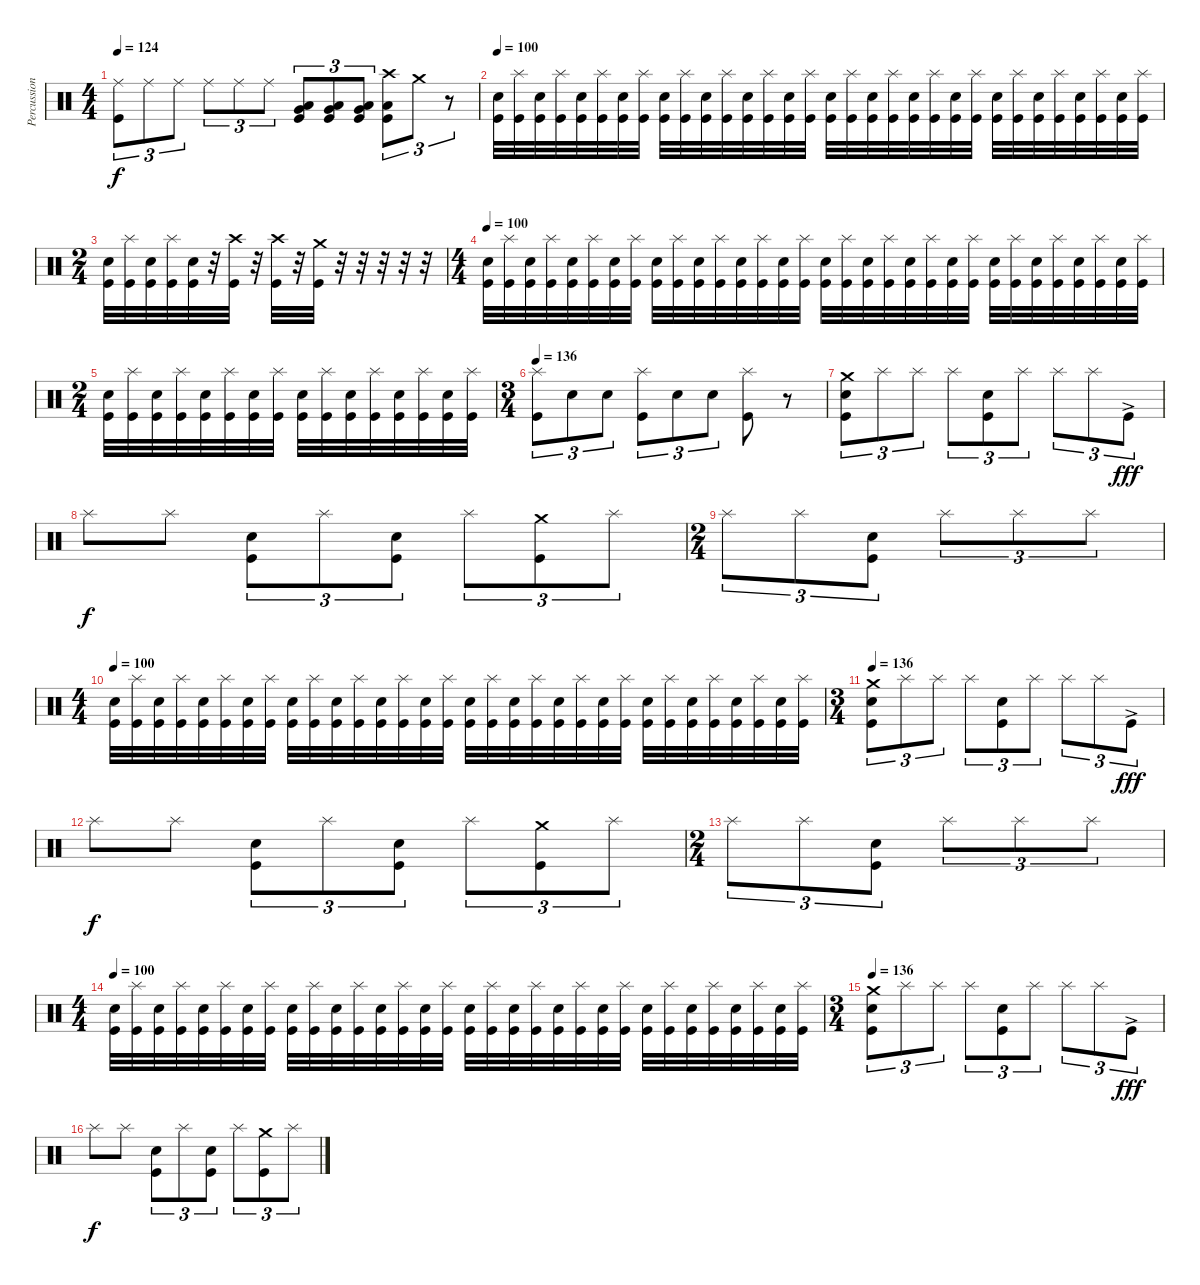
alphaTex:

\track ("Percussion" "Percussion") {instrument percussion}
\staff {score}
\articulation defaults
\ts (4 4)
\tempo 124
\clef neutral
\ks c
("Ride (middle)" "Kick (hit)").8{tu (3 2) dy f} "Ride (middle)".8{tu (3 2)} "Ride (middle)".8{tu (3 2)} "Ride (middle)".8{tu (3 2)} "Ride (middle)".8{tu (3 2)} "Ride (middle)".8{tu (3 2)} ("Very Low Tom (hit)" "Low Floor Tom (hit)" "Kick (hit)").8{tu (3 2)} ("Very Low Tom (hit)" "Low Floor Tom (hit)" "Kick (hit)").8{tu (3 2)} ("Very Low Tom (hit)" "Low Floor Tom (hit)" "Kick (hit)").8{tu (3 2)} ("Crash high (hit)" "Low Floor Tom (hit)" "Kick (hit)").8{tu (3 2)} "Crash medium (hit)".8{tu (3 2)} r.8{tu (3 2)} |
\tempo 100
("Electric Snare (hit)" "Kick (hit)").32 ("Splash (hit)" "Kick (hit)").32 ("Electric Snare (hit)" "Kick (hit)").32 ("Splash (hit)" "Kick (hit)").32 ("Electric Snare (hit)" "Kick (hit)").32 ("Splash (hit)" "Kick (hit)").32 ("Electric Snare (hit)" "Kick (hit)").32 ("Splash (hit)" "Kick (hit)").32 ("Electric Snare (hit)" "Kick (hit)").32 ("Splash (hit)" "Kick (hit)").32 ("Electric Snare (hit)" "Kick (hit)").32 ("Splash (hit)" "Kick (hit)").32 ("Electric Snare (hit)" "Kick (hit)").32 ("Splash (hit)" "Kick (hit)").32 ("Electric Snare (hit)" "Kick (hit)").32 ("Splash (hit)" "Kick (hit)").32 ("Electric Snare (hit)" "Kick (hit)").32 ("Splash (hit)" "Kick (hit)").32 ("Electric Snare (hit)" "Kick (hit)").32 ("Splash (hit)" "Kick (hit)").32 ("Electric Snare (hit)" "Kick (hit)").32 ("Splash (hit)" "Kick (hit)").32 ("Electric Snare (hit)" "Kick (hit)").32 ("Splash (hit)" "Kick (hit)").32 ("Electric Snare (hit)" "Kick (hit)").32 ("Splash (hit)" "Kick (hit)").32 ("Electric Snare (hit)" "Kick (hit)").32 ("Splash (hit)" "Kick (hit)").32 ("Electric Snare (hit)" "Kick (hit)").32 ("Splash (hit)" "Kick (hit)").32 ("Electric Snare (hit)" "Kick (hit)").32 ("Splash (hit)" "Kick (hit)").32 |
\ts (2 4)
("Electric Snare (hit)" "Kick (hit)").32 ("Splash (hit)" "Kick (hit)").32 ("Electric Snare (hit)" "Kick (hit)").32 ("Splash (hit)" "Kick (hit)").32 ("Electric Snare (hit)" "Kick (hit)").32 r.32 ("Crash high (hit)" "Kick (hit)").32 r.32 ("Crash high (hit)" "Kick (hit)").32 r.32 ("Crash medium (hit)" "Kick (hit)").32 r.32 r.32 r.32 r.32 r.32 |
\ts (4 4)
\tempo 100
("Electric Snare (hit)" "Kick (hit)").32 ("Splash (hit)" "Kick (hit)").32 ("Electric Snare (hit)" "Kick (hit)").32 ("Splash (hit)" "Kick (hit)").32 ("Electric Snare (hit)" "Kick (hit)").32 ("Splash (hit)" "Kick (hit)").32 ("Electric Snare (hit)" "Kick (hit)").32 ("Splash (hit)" "Kick (hit)").32 ("Electric Snare (hit)" "Kick (hit)").32 ("Splash (hit)" "Kick (hit)").32 ("Electric Snare (hit)" "Kick (hit)").32 ("Splash (hit)" "Kick (hit)").32 ("Electric Snare (hit)" "Kick (hit)").32 ("Splash (hit)" "Kick (hit)").32 ("Electric Snare (hit)" "Kick (hit)").32 ("Splash (hit)" "Kick (hit)").32 ("Electric Snare (hit)" "Kick (hit)").32 ("Splash (hit)" "Kick (hit)").32 ("Electric Snare (hit)" "Kick (hit)").32 ("Splash (hit)" "Kick (hit)").32 ("Electric Snare (hit)" "Kick (hit)").32 ("Splash (hit)" "Kick (hit)").32 ("Electric Snare (hit)" "Kick (hit)").32 ("Splash (hit)" "Kick (hit)").32 ("Electric Snare (hit)" "Kick (hit)").32 ("Splash (hit)" "Kick (hit)").32 ("Electric Snare (hit)" "Kick (hit)").32 ("Splash (hit)" "Kick (hit)").32 ("Electric Snare (hit)" "Kick (hit)").32 ("Splash (hit)" "Kick (hit)").32 ("Electric Snare (hit)" "Kick (hit)").32 ("Splash (hit)" "Kick (hit)").32 |
\ts (2 4)
("Electric Snare (hit)" "Kick (hit)").32 ("Splash (hit)" "Kick (hit)").32 ("Electric Snare (hit)" "Kick (hit)").32 ("Splash (hit)" "Kick (hit)").32 ("Electric Snare (hit)" "Kick (hit)").32 ("Splash (hit)" "Kick (hit)").32 ("Electric Snare (hit)" "Kick (hit)").32 ("Splash (hit)" "Kick (hit)").32 ("Electric Snare (hit)" "Kick (hit)").32 ("Splash (hit)" "Kick (hit)").32 ("Electric Snare (hit)" "Kick (hit)").32 ("Splash (hit)" "Kick (hit)").32 ("Electric Snare (hit)" "Kick (hit)").32 ("Splash (hit)" "Kick (hit)").32 ("Electric Snare (hit)" "Kick (hit)").32 ("Splash (hit)" "Kick (hit)").32 |
\ts (3 4)
\tempo 136
("Splash (hit)" "Kick (hit)").8{tu (3 2)} "Electric Snare (hit)".8{tu (3 2)} "Electric Snare (hit)".8{tu (3 2)} ("Splash (hit)" "Kick (hit)").8{tu (3 2)} "Electric Snare (hit)".8{tu (3 2)} "Electric Snare (hit)".8{tu (3 2)} ("Splash (hit)" "Kick (hit)").8 r.8 |
("Crash medium (hit)" "Electric Snare (hit)" "Kick (hit)").8{tu (3 2)} "Splash (hit)".8{tu (3 2)} "Splash (hit)".8{tu (3 2)} "Splash (hit)".8{tu (3 2)} ("Electric Snare (hit)" "Kick (hit)").8{tu (3 2)} "Splash (hit)".8{tu (3 2)} "Splash (hit)".8{tu (3 2)} "Splash (hit)".8{tu (3 2)} "Kick (hit)"{ac}.8{tu (3 2) dy fff} |
"Splash (hit)".8{dy f} "Splash (hit)".8 ("Electric Snare (hit)" "Kick (hit)").8{tu (3 2)} "Splash (hit)".8{tu (3 2)} ("Electric Snare (hit)" "Kick (hit)").8{tu (3 2)} "Splash (hit)".8{tu (3 2)} ("Crash medium (hit)" "Kick (hit)").8{tu (3 2)} "Splash (hit)".8{tu (3 2)} |
\ts (2 4)
"Splash (hit)".8{tu (3 2)} "Splash (hit)".8{tu (3 2)} ("Electric Snare (hit)" "Kick (hit)").8{tu (3 2)} "Splash (hit)".8{tu (3 2)} "Splash (hit)".8{tu (3 2)} "Splash (hit)".8{tu (3 2)} |
\ts (4 4)
\tempo 100
("Electric Snare (hit)" "Kick (hit)").32 ("Splash (hit)" "Kick (hit)").32 ("Electric Snare (hit)" "Kick (hit)").32 ("Splash (hit)" "Kick (hit)").32 ("Electric Snare (hit)" "Kick (hit)").32 ("Splash (hit)" "Kick (hit)").32 ("Electric Snare (hit)" "Kick (hit)").32 ("Splash (hit)" "Kick (hit)").32 ("Electric Snare (hit)" "Kick (hit)").32 ("Splash (hit)" "Kick (hit)").32 ("Electric Snare (hit)" "Kick (hit)").32 ("Splash (hit)" "Kick (hit)").32 ("Electric Snare (hit)" "Kick (hit)").32 ("Splash (hit)" "Kick (hit)").32 ("Electric Snare (hit)" "Kick (hit)").32 ("Splash (hit)" "Kick (hit)").32 ("Electric Snare (hit)" "Kick (hit)").32 ("Splash (hit)" "Kick (hit)").32 ("Electric Snare (hit)" "Kick (hit)").32 ("Splash (hit)" "Kick (hit)").32 ("Electric Snare (hit)" "Kick (hit)").32 ("Splash (hit)" "Kick (hit)").32 ("Electric Snare (hit)" "Kick (hit)").32 ("Splash (hit)" "Kick (hit)").32 ("Electric Snare (hit)" "Kick (hit)").32 ("Splash (hit)" "Kick (hit)").32 ("Electric Snare (hit)" "Kick (hit)").32 ("Splash (hit)" "Kick (hit)").32 ("Electric Snare (hit)" "Kick (hit)").32 ("Splash (hit)" "Kick (hit)").32 ("Electric Snare (hit)" "Kick (hit)").32 ("Splash (hit)" "Kick (hit)").32 |
\ts (3 4)
\tempo 136
("Crash medium (hit)" "Electric Snare (hit)" "Kick (hit)").8{tu (3 2)} "Splash (hit)".8{tu (3 2)} "Splash (hit)".8{tu (3 2)} "Splash (hit)".8{tu (3 2)} ("Electric Snare (hit)" "Kick (hit)").8{tu (3 2)} "Splash (hit)".8{tu (3 2)} "Splash (hit)".8{tu (3 2)} "Splash (hit)".8{tu (3 2)} "Kick (hit)"{ac}.8{tu (3 2) dy fff} |
"Splash (hit)".8{dy f} "Splash (hit)".8 ("Electric Snare (hit)" "Kick (hit)").8{tu (3 2)} "Splash (hit)".8{tu (3 2)} ("Electric Snare (hit)" "Kick (hit)").8{tu (3 2)} "Splash (hit)".8{tu (3 2)} ("Crash medium (hit)" "Kick (hit)").8{tu (3 2)} "Splash (hit)".8{tu (3 2)} |
\ts (2 4)
"Splash (hit)".8{tu (3 2)} "Splash (hit)".8{tu (3 2)} ("Electric Snare (hit)" "Kick (hit)").8{tu (3 2)} "Splash (hit)".8{tu (3 2)} "Splash (hit)".8{tu (3 2)} "Splash (hit)".8{tu (3 2)} |
\ts (4 4)
\tempo 100
("Electric Snare (hit)" "Kick (hit)").32 ("Splash (hit)" "Kick (hit)").32 ("Electric Snare (hit)" "Kick (hit)").32 ("Splash (hit)" "Kick (hit)").32 ("Electric Snare (hit)" "Kick (hit)").32 ("Splash (hit)" "Kick (hit)").32 ("Electric Snare (hit)" "Kick (hit)").32 ("Splash (hit)" "Kick (hit)").32 ("Electric Snare (hit)" "Kick (hit)").32 ("Splash (hit)" "Kick (hit)").32 ("Electric Snare (hit)" "Kick (hit)").32 ("Splash (hit)" "Kick (hit)").32 ("Electric Snare (hit)" "Kick (hit)").32 ("Splash (hit)" "Kick (hit)").32 ("Electric Snare (hit)" "Kick (hit)").32 ("Splash (hit)" "Kick (hit)").32 ("Electric Snare (hit)" "Kick (hit)").32 ("Splash (hit)" "Kick (hit)").32 ("Electric Snare (hit)" "Kick (hit)").32 ("Splash (hit)" "Kick (hit)").32 ("Electric Snare (hit)" "Kick (hit)").32 ("Splash (hit)" "Kick (hit)").32 ("Electric Snare (hit)" "Kick (hit)").32 ("Splash (hit)" "Kick (hit)").32 ("Electric Snare (hit)" "Kick (hit)").32 ("Splash (hit)" "Kick (hit)").32 ("Electric Snare (hit)" "Kick (hit)").32 ("Splash (hit)" "Kick (hit)").32 ("Electric Snare (hit)" "Kick (hit)").32 ("Splash (hit)" "Kick (hit)").32 ("Electric Snare (hit)" "Kick (hit)").32 ("Splash (hit)" "Kick (hit)").32 |
\ts (3 4)
\tempo 136
("Crash medium (hit)" "Electric Snare (hit)" "Kick (hit)").8{tu (3 2)} "Splash (hit)".8{tu (3 2)} "Splash (hit)".8{tu (3 2)} "Splash (hit)".8{tu (3 2)} ("Electric Snare (hit)" "Kick (hit)").8{tu (3 2)} "Splash (hit)".8{tu (3 2)} "Splash (hit)".8{tu (3 2)} "Splash (hit)".8{tu (3 2)} "Kick (hit)"{ac}.8{tu (3 2) dy fff} |
"Splash (hit)".8{dy f} "Splash (hit)".8 ("Electric Snare (hit)" "Kick (hit)").8{tu (3 2)} "Splash (hit)".8{tu (3 2)} ("Electric Snare (hit)" "Kick (hit)").8{tu (3 2)} "Splash (hit)".8{tu (3 2)} ("Crash medium (hit)" "Kick (hit)").8{tu (3 2)} "Splash (hit)".8{tu (3 2)}
